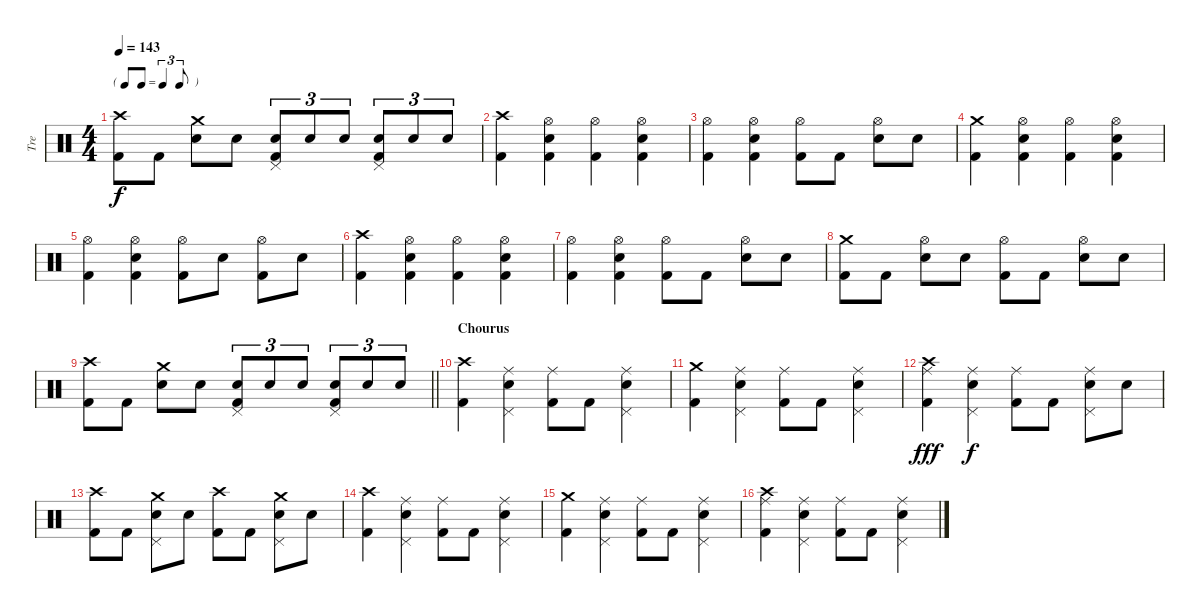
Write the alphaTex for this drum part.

\track ("Tre" "Tre") {instrument percussion}
\staff {score}
\articulation defaults
\ts (4 4)
\tf triplet8th
\tempo 143
\clef neutral
\ks c
("Crash high (hit)" "Kick (hit) 2").8{dy f} "Kick (hit) 2".8 ("Crash medium (hit)" "Snare (hit) 2").8 "Snare (hit) 2".8 ("Snare (hit) 2" "Pedal Hi-Hat (hit)" "Kick (hit) 2").8{tu (3 2)} "Snare (hit) 2".8{tu (3 2)} "Snare (hit) 2".8{tu (3 2)} ("Snare (hit) 2" "Pedal Hi-Hat (hit)" "Kick (hit) 2").8{tu (3 2)} "Snare (hit) 2".8{tu (3 2)} "Snare (hit) 2".8{tu (3 2)} |
("Crash high (hit)" "Kick (hit) 2").4 ("Hi-Hat (open)" "Snare (hit) 2" "Kick (hit) 2").4 ("Hi-Hat (open)" "Kick (hit) 2").4 ("Hi-Hat (open)" "Snare (hit) 2" "Kick (hit) 2").4 |
("Hi-Hat (open)" "Kick (hit) 2").4 ("Hi-Hat (open)" "Snare (hit) 2" "Kick (hit) 2").4 ("Hi-Hat (open)" "Kick (hit) 2").8 "Kick (hit) 2".8 ("Hi-Hat (open)" "Snare (hit) 2").8 "Snare (hit) 2".8 |
("Crash medium (hit)" "Kick (hit) 2").4 ("Hi-Hat (open)" "Snare (hit) 2" "Kick (hit) 2").4 ("Hi-Hat (open)" "Kick (hit) 2").4 ("Hi-Hat (open)" "Snare (hit) 2" "Kick (hit) 2").4 |
("Hi-Hat (open)" "Kick (hit) 2").4 ("Hi-Hat (open)" "Snare (hit) 2" "Kick (hit) 2").4 ("Hi-Hat (open)" "Kick (hit) 2").8 "Snare (hit) 2".8 ("Hi-Hat (open)" "Kick (hit) 2").8 "Snare (hit) 2".8 |
("Crash high (hit)" "Kick (hit) 2").4 ("Hi-Hat (open)" "Snare (hit) 2" "Kick (hit) 2").4 ("Hi-Hat (open)" "Kick (hit) 2").4 ("Hi-Hat (open)" "Snare (hit) 2" "Kick (hit) 2").4 |
("Hi-Hat (open)" "Kick (hit) 2").4 ("Hi-Hat (open)" "Snare (hit) 2" "Kick (hit) 2").4 ("Hi-Hat (open)" "Kick (hit) 2").8 "Kick (hit) 2".8 ("Hi-Hat (open)" "Snare (hit) 2").8 "Snare (hit) 2".8 |
("Crash medium (hit)" "Kick (hit) 2").8 "Kick (hit) 2".8 ("Hi-Hat (open)" "Snare (hit) 2").8 "Snare (hit) 2".8 ("Hi-Hat (open)" "Kick (hit) 2").8 "Kick (hit) 2".8 ("Hi-Hat (open)" "Snare (hit) 2").8 "Snare (hit) 2".8 |
\barLineRight lightlight
("Crash high (hit)" "Kick (hit) 2").8 "Kick (hit) 2".8 ("Crash medium (hit)" "Snare (hit) 2").8 "Snare (hit) 2".8 ("Snare (hit) 2" "Pedal Hi-Hat (hit)" "Kick (hit) 2").8{tu (3 2)} "Snare (hit) 2".8{tu (3 2)} "Snare (hit) 2".8{tu (3 2)} ("Snare (hit) 2" "Pedal Hi-Hat (hit)" "Kick (hit) 2").8{tu (3 2)} "Snare (hit) 2".8{tu (3 2)} "Snare (hit) 2".8{tu (3 2)} |
\section ("" "Chourus")
("Crash high (hit)" "Kick (hit) 2").4 ("Ride (middle)" "Snare (hit) 2" "Pedal Hi-Hat (hit)").4 ("Ride (middle)" "Kick (hit) 2").8 "Kick (hit) 2".8 ("Ride (middle)" "Snare (hit) 2" "Pedal Hi-Hat (hit)").4 |
("Crash medium (hit)" "Kick (hit) 2").4 ("Ride (middle)" "Snare (hit) 2" "Pedal Hi-Hat (hit)").4 ("Ride (middle)" "Kick (hit) 2").8 "Kick (hit) 2".8 ("Ride (middle)" "Snare (hit) 2" "Pedal Hi-Hat (hit)").4 |
("Crash high (hit)" "Ride (middle)" "Kick (hit) 2").4{dy fff} ("Ride (middle)" "Snare (hit) 2" "Pedal Hi-Hat (hit)").4{dy f} ("Ride (middle)" "Kick (hit) 2").8 "Kick (hit) 2".8 ("Ride (middle)" "Snare (hit) 2" "Pedal Hi-Hat (hit)").8 "Snare (hit) 2".8 |
("Crash high (hit)" "Kick (hit) 2").8 "Kick (hit) 2".8 ("Crash medium (hit)" "Snare (hit) 2" "Pedal Hi-Hat (hit)").8 "Snare (hit) 2".8 ("Crash high (hit)" "Kick (hit) 2").8 "Kick (hit) 2".8 ("Crash medium (hit)" "Snare (hit) 2" "Pedal Hi-Hat (hit)").8 "Snare (hit) 2".8 |
("Crash high (hit)" "Kick (hit) 2").4 ("Ride (middle)" "Snare (hit) 2" "Pedal Hi-Hat (hit)").4 ("Ride (middle)" "Kick (hit) 2").8 "Kick (hit) 2".8 ("Ride (middle)" "Snare (hit) 2" "Pedal Hi-Hat (hit)").4 |
("Crash medium (hit)" "Kick (hit) 2").4 ("Ride (middle)" "Snare (hit) 2" "Pedal Hi-Hat (hit)").4 ("Ride (middle)" "Kick (hit) 2").8 "Kick (hit) 2".8 ("Ride (middle)" "Snare (hit) 2" "Pedal Hi-Hat (hit)").4 |
("Crash high (hit)" "Ride (middle)" "Kick (hit) 2").4 ("Ride (middle)" "Snare (hit) 2" "Pedal Hi-Hat (hit)").4 ("Ride (middle)" "Kick (hit) 2").8 "Kick (hit) 2".8 ("Ride (middle)" "Snare (hit) 2" "Pedal Hi-Hat (hit)").4
